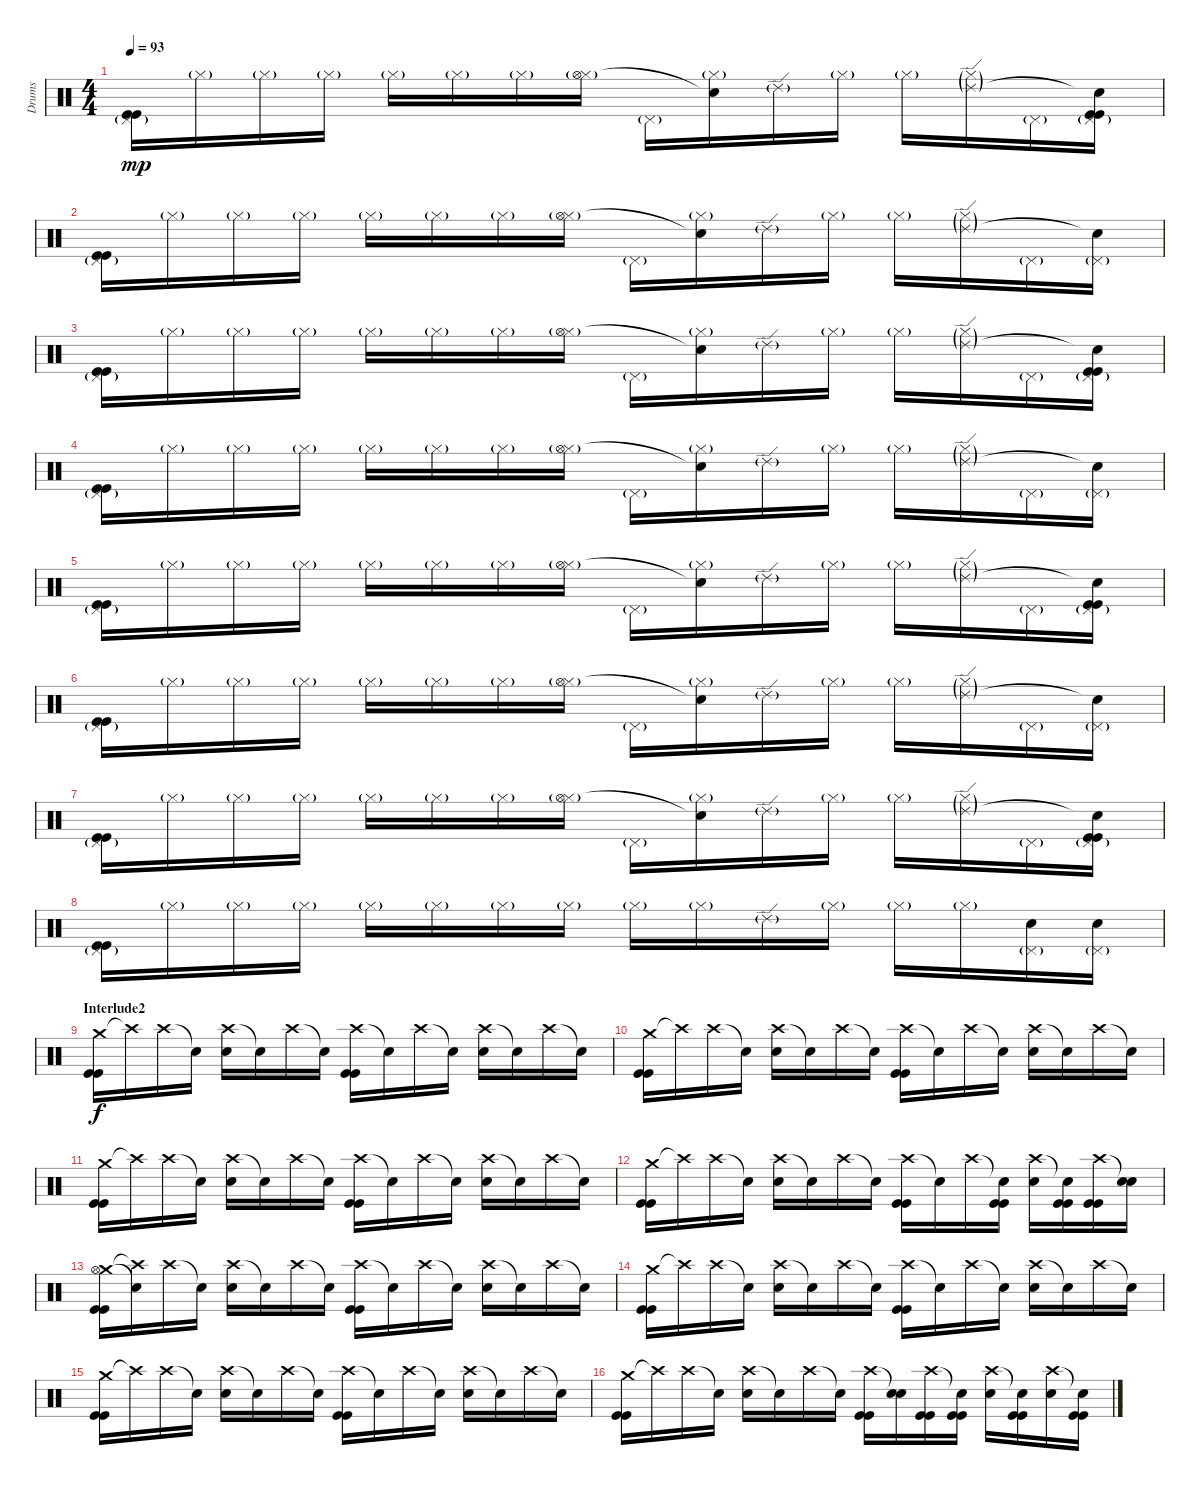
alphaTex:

\track ("Drums " "Drums ") {instrument percussion}
\staff {score}
\articulation defaults
\ts (4 4)
\tempo 93
\clef neutral
\ks c
("Pedal Hi-Hat (hit)"{g} "Kick (hit)" "Kick (hit)").16{dy mp} "Hi-Hat (closed)"{g}.16 "Hi-Hat (closed)"{g}.16 "Hi-Hat (closed)"{g}.16 "Hi-Hat (closed)"{g}.16 "Hi-Hat (closed)"{g}.16 "Hi-Hat (closed)"{g}.16 ("Hi-Hat (closed)"{g} "Hi-Hat (open)"{g}).16 "Pedal Hi-Hat (hit)"{g}.16 ("Hi-Hat (closed)"{g} "Snare (hit)"{t}).16 "Ride (edge) 2"{g}.16 "Hi-Hat (closed)"{g}.16 "Hi-Hat (closed)"{g}.16 ("Hi-Hat (closed)"{g} "Ride (edge) 2"{g}).16 "Pedal Hi-Hat (hit)"{g}.16 ("Pedal Hi-Hat (hit)"{g} "Snare (hit)"{t} "Kick (hit)" "Kick (hit)").16 |
("Pedal Hi-Hat (hit)"{g} "Kick (hit)" "Kick (hit)").16 "Hi-Hat (closed)"{g}.16 "Hi-Hat (closed)"{g}.16 "Hi-Hat (closed)"{g}.16 "Hi-Hat (closed)"{g}.16 "Hi-Hat (closed)"{g}.16 "Hi-Hat (closed)"{g}.16 ("Hi-Hat (closed)"{g} "Hi-Hat (open)"{g}).16 "Pedal Hi-Hat (hit)"{g}.16 ("Hi-Hat (closed)"{g} "Snare (hit)"{t}).16 "Ride (edge) 2"{g}.16 "Hi-Hat (closed)"{g}.16 "Hi-Hat (closed)"{g}.16 ("Hi-Hat (closed)"{g} "Ride (edge) 2"{g}).16 "Pedal Hi-Hat (hit)"{g}.16 ("Pedal Hi-Hat (hit)"{g} "Snare (hit)"{t}).16 |
("Pedal Hi-Hat (hit)"{g} "Kick (hit)" "Kick (hit)").16 "Hi-Hat (closed)"{g}.16 "Hi-Hat (closed)"{g}.16 "Hi-Hat (closed)"{g}.16 "Hi-Hat (closed)"{g}.16 "Hi-Hat (closed)"{g}.16 "Hi-Hat (closed)"{g}.16 ("Hi-Hat (closed)"{g} "Hi-Hat (open)"{g}).16 "Pedal Hi-Hat (hit)"{g}.16 ("Hi-Hat (closed)"{g} "Snare (hit)"{t}).16 "Ride (edge) 2"{g}.16 "Hi-Hat (closed)"{g}.16 "Hi-Hat (closed)"{g}.16 ("Hi-Hat (closed)"{g} "Ride (edge) 2"{g}).16 "Pedal Hi-Hat (hit)"{g}.16 ("Pedal Hi-Hat (hit)"{g} "Snare (hit)"{t} "Kick (hit)" "Kick (hit)").16 |
("Pedal Hi-Hat (hit)"{g} "Kick (hit)" "Kick (hit)").16 "Hi-Hat (closed)"{g}.16 "Hi-Hat (closed)"{g}.16 "Hi-Hat (closed)"{g}.16 "Hi-Hat (closed)"{g}.16 "Hi-Hat (closed)"{g}.16 "Hi-Hat (closed)"{g}.16 ("Hi-Hat (closed)"{g} "Hi-Hat (open)"{g}).16 "Pedal Hi-Hat (hit)"{g}.16 ("Hi-Hat (closed)"{g} "Snare (hit)"{t}).16 "Ride (edge) 2"{g}.16 "Hi-Hat (closed)"{g}.16 "Hi-Hat (closed)"{g}.16 ("Hi-Hat (closed)"{g} "Ride (edge) 2"{g}).16 "Pedal Hi-Hat (hit)"{g}.16 ("Pedal Hi-Hat (hit)"{g} "Snare (hit)"{t}).16 |
("Pedal Hi-Hat (hit)"{g} "Kick (hit)" "Kick (hit)").16 "Hi-Hat (closed)"{g}.16 "Hi-Hat (closed)"{g}.16 "Hi-Hat (closed)"{g}.16 "Hi-Hat (closed)"{g}.16 "Hi-Hat (closed)"{g}.16 "Hi-Hat (closed)"{g}.16 ("Hi-Hat (closed)"{g} "Hi-Hat (open)"{g}).16 "Pedal Hi-Hat (hit)"{g}.16 ("Hi-Hat (closed)"{g} "Snare (hit)"{t}).16 "Ride (edge) 2"{g}.16 "Hi-Hat (closed)"{g}.16 "Hi-Hat (closed)"{g}.16 ("Hi-Hat (closed)"{g} "Ride (edge) 2"{g}).16 "Pedal Hi-Hat (hit)"{g}.16 ("Pedal Hi-Hat (hit)"{g} "Snare (hit)"{t} "Kick (hit)" "Kick (hit)").16 |
("Pedal Hi-Hat (hit)"{g} "Kick (hit)" "Kick (hit)").16 "Hi-Hat (closed)"{g}.16 "Hi-Hat (closed)"{g}.16 "Hi-Hat (closed)"{g}.16 "Hi-Hat (closed)"{g}.16 "Hi-Hat (closed)"{g}.16 "Hi-Hat (closed)"{g}.16 ("Hi-Hat (closed)"{g} "Hi-Hat (open)"{g}).16 "Pedal Hi-Hat (hit)"{g}.16 ("Hi-Hat (closed)"{g} "Snare (hit)"{t}).16 "Ride (edge) 2"{g}.16 "Hi-Hat (closed)"{g}.16 "Hi-Hat (closed)"{g}.16 ("Hi-Hat (closed)"{g} "Ride (edge) 2"{g}).16 "Pedal Hi-Hat (hit)"{g}.16 ("Pedal Hi-Hat (hit)"{g} "Snare (hit)"{t}).16 |
("Pedal Hi-Hat (hit)"{g} "Kick (hit)" "Kick (hit)").16 "Hi-Hat (closed)"{g}.16 "Hi-Hat (closed)"{g}.16 "Hi-Hat (closed)"{g}.16 "Hi-Hat (closed)"{g}.16 "Hi-Hat (closed)"{g}.16 "Hi-Hat (closed)"{g}.16 ("Hi-Hat (closed)"{g} "Hi-Hat (open)"{g}).16 "Pedal Hi-Hat (hit)"{g}.16 ("Hi-Hat (closed)"{g} "Snare (hit)"{t}).16 "Ride (edge) 2"{g}.16 "Hi-Hat (closed)"{g}.16 "Hi-Hat (closed)"{g}.16 ("Hi-Hat (closed)"{g} "Ride (edge) 2"{g}).16 "Pedal Hi-Hat (hit)"{g}.16 ("Pedal Hi-Hat (hit)"{g} "Snare (hit)"{t} "Kick (hit)" "Kick (hit)").16 |
("Pedal Hi-Hat (hit)"{g} "Kick (hit)" "Kick (hit)").16 "Hi-Hat (closed)"{g}.16 "Hi-Hat (closed)"{g}.16 "Hi-Hat (closed)"{g}.16 "Hi-Hat (closed)"{g}.16 "Hi-Hat (closed)"{g}.16 "Hi-Hat (closed)"{g}.16 "Hi-Hat (closed)"{g}.16 "Hi-Hat (closed)"{g}.16 "Hi-Hat (closed)"{g}.16 "Ride (edge) 2"{g}.16 "Hi-Hat (closed)"{g}.16 "Hi-Hat (closed)"{g}.16 "Hi-Hat (closed)"{g}.16 ("Pedal Hi-Hat (hit)"{g} "Snare (hit) 2").16 ("Pedal Hi-Hat (hit)"{g} "Snare (hit) 2").16 |
\section ("" "Interlude2")
("Crash medium (hit)" "Kick (hit)" "Kick (hit)").16{dy f} "Crash high (hit)"{t}.16 "Crash high (hit)".16 "Snare (hit)"{t}.16 ("Crash high (hit)" "Snare (hit) 2").16 "Snare (hit)"{t}.16 "Crash high (hit)".16 "Snare (hit)"{t}.16 ("Crash high (hit)" "Kick (hit)" "Kick (hit)").16 "Snare (hit)"{t}.16 "Crash high (hit)".16 "Snare (hit)"{t}.16 ("Crash high (hit)" "Snare (hit) 2").16 "Snare (hit)"{t}.16 "Crash high (hit)".16 "Snare (hit)"{t}.16 |
("Crash medium (hit)" "Kick (hit)" "Kick (hit)").16 "Crash high (hit)"{t}.16 "Crash high (hit)".16 "Snare (hit)"{t}.16 ("Crash high (hit)" "Snare (hit) 2").16 "Snare (hit)"{t}.16 "Crash high (hit)".16 "Snare (hit)"{t}.16 ("Crash high (hit)" "Kick (hit)" "Kick (hit)").16 "Snare (hit)"{t}.16 "Crash high (hit)".16 "Snare (hit)"{t}.16 ("Crash high (hit)" "Snare (hit) 2").16 "Snare (hit)"{t}.16 "Crash high (hit)".16 "Snare (hit)"{t}.16 |
("Crash medium (hit)" "Kick (hit)" "Kick (hit)").16 "Crash high (hit)"{t}.16 "Crash high (hit)".16 "Snare (hit)"{t}.16 ("Crash high (hit)" "Snare (hit) 2").16 "Snare (hit)"{t}.16 "Crash high (hit)".16 "Snare (hit)"{t}.16 ("Crash high (hit)" "Kick (hit)" "Kick (hit)").16 "Snare (hit)"{t}.16 "Crash high (hit)".16 "Snare (hit)"{t}.16 ("Crash high (hit)" "Snare (hit) 2").16 "Snare (hit)"{t}.16 "Crash high (hit)".16 "Snare (hit)"{t}.16 |
("Crash medium (hit)" "Kick (hit)" "Kick (hit)").16 "Crash high (hit)"{t}.16 "Crash high (hit)".16 "Snare (hit)"{t}.16 ("Crash high (hit)" "Snare (hit) 2").16 "Snare (hit)"{t}.16 "Crash high (hit)".16 "Snare (hit)"{t}.16 ("Crash high (hit)" "Kick (hit)" "Kick (hit)").16 "Snare (hit)"{t}.16 "Crash high (hit)".16 ("Snare (hit)"{t} "Kick (hit)" "Kick (hit)").16 ("Crash high (hit)" "Snare (hit) 2").16 ("Snare (hit)"{t} "Kick (hit)" "Kick (hit)").16 ("Crash high (hit)" "Kick (hit)" "Kick (hit)").16 ("Snare (hit)"{t} "Snare (hit) 2").16 |
("Crash medium (hit)" "Hi-Hat (open)" "Kick (hit)" "Kick (hit)").16 ("Crash high (hit)"{t} "Snare (hit)"{t}).16 "Crash high (hit)".16 "Snare (hit)"{t}.16 ("Crash high (hit)" "Snare (hit) 2").16 "Snare (hit)"{t}.16 "Crash high (hit)".16 "Snare (hit)"{t}.16 ("Crash high (hit)" "Kick (hit)" "Kick (hit)").16 "Snare (hit)"{t}.16 "Crash high (hit)".16 "Snare (hit)"{t}.16 ("Crash high (hit)" "Snare (hit) 2").16 "Snare (hit)"{t}.16 "Crash high (hit)".16 "Snare (hit)"{t}.16 |
("Crash medium (hit)" "Kick (hit)" "Kick (hit)").16 "Crash high (hit)"{t}.16 "Crash high (hit)".16 "Snare (hit)"{t}.16 ("Crash high (hit)" "Snare (hit) 2").16 "Snare (hit)"{t}.16 "Crash high (hit)".16 "Snare (hit)"{t}.16 ("Crash high (hit)" "Kick (hit)" "Kick (hit)").16 "Snare (hit)"{t}.16 "Crash high (hit)".16 "Snare (hit)"{t}.16 ("Crash high (hit)" "Snare (hit) 2").16 "Snare (hit)"{t}.16 "Crash high (hit)".16 "Snare (hit)"{t}.16 |
("Crash medium (hit)" "Kick (hit)" "Kick (hit)").16 "Crash high (hit)"{t}.16 "Crash high (hit)".16 "Snare (hit)"{t}.16 ("Crash high (hit)" "Snare (hit) 2").16 "Snare (hit)"{t}.16 "Crash high (hit)".16 "Snare (hit)"{t}.16 ("Crash high (hit)" "Kick (hit)" "Kick (hit)").16 "Snare (hit)"{t}.16 "Crash high (hit)".16 "Snare (hit)"{t}.16 ("Crash high (hit)" "Snare (hit) 2").16 "Snare (hit)"{t}.16 "Crash high (hit)".16 "Snare (hit)"{t}.16 |
("Crash medium (hit)" "Kick (hit)" "Kick (hit)").16 "Crash high (hit)"{t}.16 "Crash high (hit)".16 "Snare (hit)"{t}.16 ("Crash high (hit)" "Snare (hit) 2").16 "Snare (hit)"{t}.16 "Crash high (hit)".16 "Snare (hit)"{t}.16 ("Crash high (hit)" "Kick (hit)" "Kick (hit)").16 ("Snare (hit)"{t} "Snare (hit) 2").16 ("Crash high (hit)" "Kick (hit)" "Kick (hit)").16 ("Snare (hit)"{t} "Kick (hit)" "Kick (hit)").16 ("Crash high (hit)" "Snare (hit) 2").16 ("Snare (hit)"{t} "Kick (hit)" "Kick (hit)").16 ("Crash high (hit)" "Snare (hit) 2").16 ("Snare (hit)"{t} "Kick (hit)" "Kick (hit)").16
